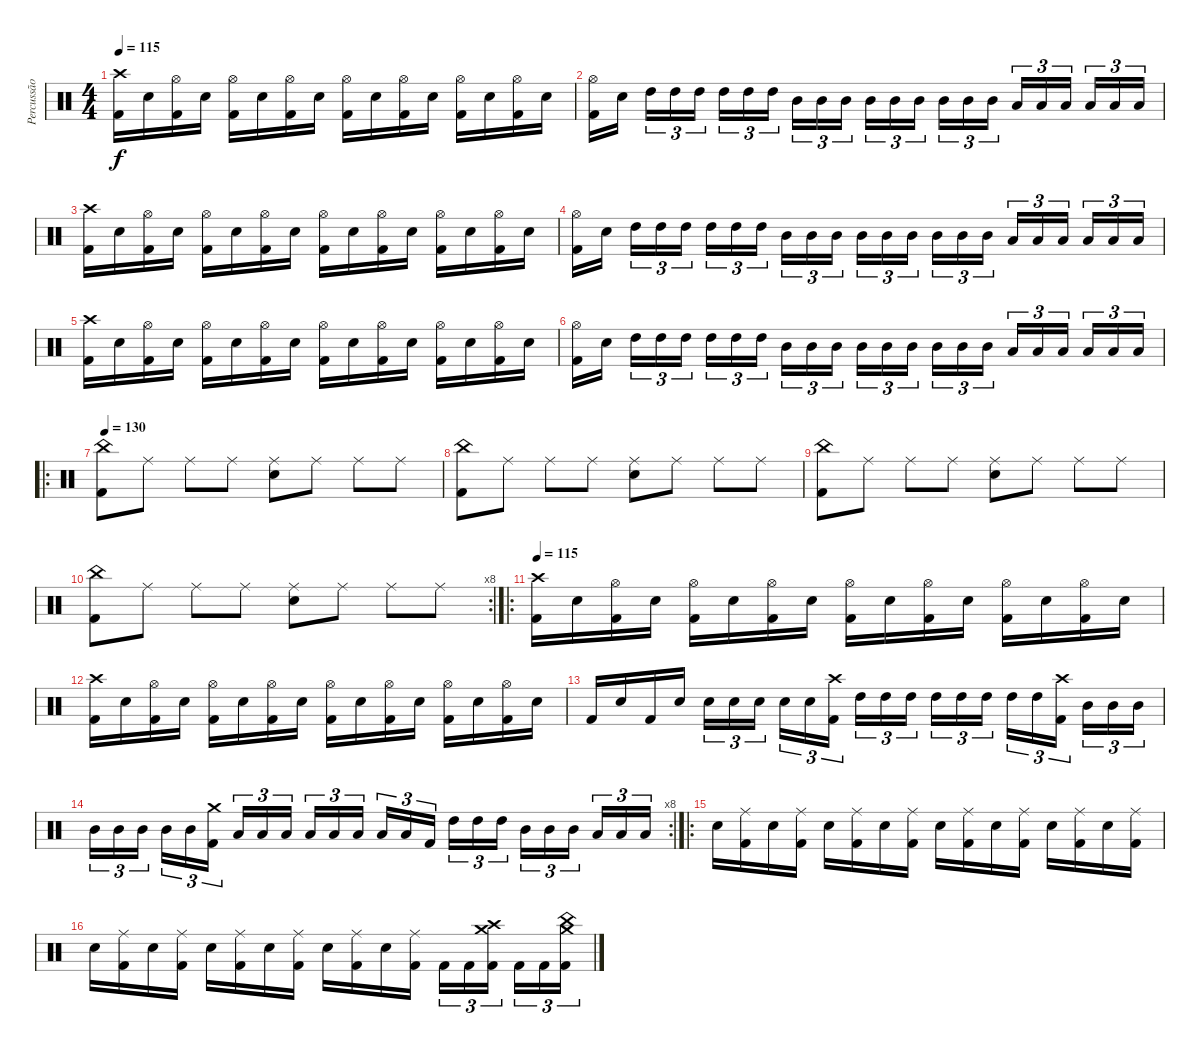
\track ("Percussão" "Percussão") {instrument percussion}
\staff {score}
\articulation defaults
\ts (4 4)
\tempo 115
\clef neutral
\ks c
("Crash high (hit)" "Kick (hit) 2").16{dy f} "Electric Snare (hit)".16 ("Hi-Hat (open)" "Kick (hit) 2").16 "Electric Snare (hit)".16 ("Hi-Hat (open)" "Kick (hit) 2").16 "Electric Snare (hit)".16 ("Hi-Hat (open)" "Kick (hit) 2").16 "Electric Snare (hit)".16 ("Hi-Hat (open)" "Kick (hit) 2").16 "Electric Snare (hit)".16 ("Hi-Hat (open)" "Kick (hit) 2").16 "Electric Snare (hit)".16 ("Hi-Hat (open)" "Kick (hit) 2").16 "Electric Snare (hit)".16 ("Hi-Hat (open)" "Kick (hit) 2").16 "Electric Snare (hit)".16 |
("Hi-Hat (open)" "Kick (hit) 2").16 "Electric Snare (hit)".16 "High Tom (hit)".16{tu (3 2)} "High Tom (hit)".16{tu (3 2)} "High Tom (hit)".16{tu (3 2)} "High Tom (hit)".16{tu (3 2)} "High Tom (hit)".16{tu (3 2)} "High Tom (hit)".16{tu (3 2)} "Mid Tom (hit)".16{tu (3 2)} "Mid Tom (hit)".16{tu (3 2)} "Mid Tom (hit)".16{tu (3 2)} "Mid Tom (hit)".16{tu (3 2)} "Mid Tom (hit)".16{tu (3 2)} "Mid Tom (hit)".16{tu (3 2)} "Mid Tom (hit)".16{tu (3 2)} "Mid Tom (hit)".16{tu (3 2)} "Mid Tom (hit)".16{tu (3 2)} "Low Tom (hit)".16{tu (3 2)} "Low Tom (hit)".16{tu (3 2)} "Low Tom (hit)".16{tu (3 2)} "Low Tom (hit)".16{tu (3 2)} "Low Tom (hit)".16{tu (3 2)} "Low Tom (hit)".16{tu (3 2)} |
("Crash high (hit)" "Kick (hit) 2").16 "Electric Snare (hit)".16 ("Hi-Hat (open)" "Kick (hit) 2").16 "Electric Snare (hit)".16 ("Hi-Hat (open)" "Kick (hit) 2").16 "Electric Snare (hit)".16 ("Hi-Hat (open)" "Kick (hit) 2").16 "Electric Snare (hit)".16 ("Hi-Hat (open)" "Kick (hit) 2").16 "Electric Snare (hit)".16 ("Hi-Hat (open)" "Kick (hit) 2").16 "Electric Snare (hit)".16 ("Hi-Hat (open)" "Kick (hit) 2").16 "Electric Snare (hit)".16 ("Hi-Hat (open)" "Kick (hit) 2").16 "Electric Snare (hit)".16 |
("Hi-Hat (open)" "Kick (hit) 2").16 "Electric Snare (hit)".16 "High Tom (hit)".16{tu (3 2)} "High Tom (hit)".16{tu (3 2)} "High Tom (hit)".16{tu (3 2)} "High Tom (hit)".16{tu (3 2)} "High Tom (hit)".16{tu (3 2)} "High Tom (hit)".16{tu (3 2)} "Mid Tom (hit)".16{tu (3 2)} "Mid Tom (hit)".16{tu (3 2)} "Mid Tom (hit)".16{tu (3 2)} "Mid Tom (hit)".16{tu (3 2)} "Mid Tom (hit)".16{tu (3 2)} "Mid Tom (hit)".16{tu (3 2)} "Mid Tom (hit)".16{tu (3 2)} "Mid Tom (hit)".16{tu (3 2)} "Mid Tom (hit)".16{tu (3 2)} "Low Tom (hit)".16{tu (3 2)} "Low Tom (hit)".16{tu (3 2)} "Low Tom (hit)".16{tu (3 2)} "Low Tom (hit)".16{tu (3 2)} "Low Tom (hit)".16{tu (3 2)} "Low Tom (hit)".16{tu (3 2)} |
("Crash high (hit)" "Kick (hit) 2").16 "Electric Snare (hit)".16 ("Hi-Hat (open)" "Kick (hit) 2").16 "Electric Snare (hit)".16 ("Hi-Hat (open)" "Kick (hit) 2").16 "Electric Snare (hit)".16 ("Hi-Hat (open)" "Kick (hit) 2").16 "Electric Snare (hit)".16 ("Hi-Hat (open)" "Kick (hit) 2").16 "Electric Snare (hit)".16 ("Hi-Hat (open)" "Kick (hit) 2").16 "Electric Snare (hit)".16 ("Hi-Hat (open)" "Kick (hit) 2").16 "Electric Snare (hit)".16 ("Hi-Hat (open)" "Kick (hit) 2").16 "Electric Snare (hit)".16 |
("Hi-Hat (open)" "Kick (hit) 2").16 "Electric Snare (hit)".16 "High Tom (hit)".16{tu (3 2)} "High Tom (hit)".16{tu (3 2)} "High Tom (hit)".16{tu (3 2)} "High Tom (hit)".16{tu (3 2)} "High Tom (hit)".16{tu (3 2)} "High Tom (hit)".16{tu (3 2)} "Mid Tom (hit)".16{tu (3 2)} "Mid Tom (hit)".16{tu (3 2)} "Mid Tom (hit)".16{tu (3 2)} "Mid Tom (hit)".16{tu (3 2)} "Mid Tom (hit)".16{tu (3 2)} "Mid Tom (hit)".16{tu (3 2)} "Mid Tom (hit)".16{tu (3 2)} "Mid Tom (hit)".16{tu (3 2)} "Mid Tom (hit)".16{tu (3 2)} "Low Tom (hit)".16{tu (3 2)} "Low Tom (hit)".16{tu (3 2)} "Low Tom (hit)".16{tu (3 2)} "Low Tom (hit)".16{tu (3 2)} "Low Tom (hit)".16{tu (3 2)} "Low Tom (hit)".16{tu (3 2)} |
\ro
\tempo 130
("Kick (hit) 2" "China (hit)").8 "Ride (middle)".8 "Ride (middle)".8 "Ride (middle)".8 ("Electric Snare (hit)" "Ride (middle)").8 "Ride (middle)".8 "Ride (middle)".8 "Ride (middle)".8 |
("Kick (hit) 2" "China (hit)").8 "Ride (middle)".8 "Ride (middle)".8 "Ride (middle)".8 ("Electric Snare (hit)" "Ride (middle)").8 "Ride (middle)".8 "Ride (middle)".8 "Ride (middle)".8 |
("Kick (hit) 2" "China (hit)").8 "Ride (middle)".8 "Ride (middle)".8 "Ride (middle)".8 ("Electric Snare (hit)" "Ride (middle)").8 "Ride (middle)".8 "Ride (middle)".8 "Ride (middle)".8 |
\rc 8
("Kick (hit) 2" "China (hit)").8 "Ride (middle)".8 "Ride (middle)".8 "Ride (middle)".8 ("Electric Snare (hit)" "Ride (middle)").8 "Ride (middle)".8 "Ride (middle)".8 "Ride (middle)".8 |
\ro
\tempo 115
("Crash high (hit)" "Kick (hit) 2").16 "Electric Snare (hit)".16 ("Hi-Hat (open)" "Kick (hit) 2").16 "Electric Snare (hit)".16 ("Hi-Hat (open)" "Kick (hit) 2").16 "Electric Snare (hit)".16 ("Hi-Hat (open)" "Kick (hit) 2").16 "Electric Snare (hit)".16 ("Hi-Hat (open)" "Kick (hit) 2").16 "Electric Snare (hit)".16 ("Hi-Hat (open)" "Kick (hit) 2").16 "Electric Snare (hit)".16 ("Hi-Hat (open)" "Kick (hit) 2").16 "Electric Snare (hit)".16 ("Hi-Hat (open)" "Kick (hit) 2").16 "Electric Snare (hit)".16 |
("Crash high (hit)" "Kick (hit) 2").16 "Electric Snare (hit)".16 ("Hi-Hat (open)" "Kick (hit) 2").16 "Electric Snare (hit)".16 ("Hi-Hat (open)" "Kick (hit) 2").16 "Electric Snare (hit)".16 ("Hi-Hat (open)" "Kick (hit) 2").16 "Electric Snare (hit)".16 ("Hi-Hat (open)" "Kick (hit) 2").16 "Electric Snare (hit)".16 ("Hi-Hat (open)" "Kick (hit) 2").16 "Electric Snare (hit)".16 ("Hi-Hat (open)" "Kick (hit) 2").16 "Electric Snare (hit)".16 ("Hi-Hat (open)" "Kick (hit) 2").16 "Electric Snare (hit)".16 |
"Kick (hit) 2".16 "Electric Snare (hit)".16 "Kick (hit) 2".16 "Electric Snare (hit)".16 "Electric Snare (hit)".16{tu (3 2)} "Electric Snare (hit)".16{tu (3 2)} "Electric Snare (hit)".16{tu (3 2)} "Electric Snare (hit)".16{tu (3 2)} "Electric Snare (hit)".16{tu (3 2)} ("Crash high (hit)" "Kick (hit) 2").16{tu (3 2)} "High Tom (hit)".16{tu (3 2)} "High Tom (hit)".16{tu (3 2)} "High Tom (hit)".16{tu (3 2)} "High Tom (hit)".16{tu (3 2)} "High Tom (hit)".16{tu (3 2)} "High Tom (hit)".16{tu (3 2)} "High Tom (hit)".16{tu (3 2)} "High Tom (hit)".16{tu (3 2)} ("Crash high (hit)" "Kick (hit) 2").16{tu (3 2)} "Mid Tom (hit)".16{tu (3 2)} "Mid Tom (hit)".16{tu (3 2)} "Mid Tom (hit)".16{tu (3 2)} |
\rc 8 "Mid Tom (hit)".16{tu (3 2)} "Mid Tom (hit)".16{tu (3 2)} "Mid Tom (hit)".16{tu (3 2)} "Mid Tom (hit)".16{tu (3 2)} "Mid Tom (hit)".16{tu (3 2)}
("Crash medium (hit)" "Kick (hit) 2").16{tu (3 2)} "Low Tom (hit)".16{tu (3 2)} "Low Tom (hit)".16{tu (3 2)} "Low Tom (hit)".16{tu (3 2)} "Low Tom (hit)".16{tu (3 2)} "Low Tom (hit)".16{tu (3 2)} "Low Tom (hit)".16{tu (3 2)} "Low Tom (hit)".16{tu (3 2)} "Low Tom (hit)".16{tu (3 2)} "Kick (hit) 2".16{tu (3 2)} "High Tom (hit)".16{tu (3 2)} "High Tom (hit)".16{tu (3 2)} "High Tom (hit)".16{tu (3 2)} "Mid Tom (hit)".16{tu (3 2)} "Mid Tom (hit)".16{tu (3 2)} "Mid Tom (hit)".16{tu (3 2)} "Low Tom (hit)".16{tu (3 2)} "Low Tom (hit)".16{tu (3 2)} "Low Tom (hit)".16{tu (3 2)} |
\ro "Electric Snare (hit)".16
("Ride (middle)" "Kick (hit) 2").16 "Electric Snare (hit)".16 ("Ride (middle)" "Kick (hit) 2").16 "Electric Snare (hit)".16 ("Ride (middle)" "Kick (hit) 2").16 "Electric Snare (hit)".16 ("Ride (middle)" "Kick (hit) 2").16 "Electric Snare (hit)".16 ("Ride (middle)" "Kick (hit) 2").16 "Electric Snare (hit)".16 ("Ride (middle)" "Kick (hit) 2").16 "Electric Snare (hit)".16 ("Ride (middle)" "Kick (hit) 2").16 "Electric Snare (hit)".16 ("Ride (middle)" "Kick (hit) 2").16 |
"Electric Snare (hit)".16 ("Ride (middle)" "Kick (hit) 2").16 "Electric Snare (hit)".16 ("Ride (middle)" "Kick (hit) 2").16 "Electric Snare (hit)".16 ("Ride (middle)" "Kick (hit) 2").16 "Electric Snare (hit)".16 ("Ride (middle)" "Kick (hit) 2").16 "Electric Snare (hit)".16 ("Ride (middle)" "Kick (hit) 2").16 "Electric Snare (hit)".16 ("Ride (middle)" "Kick (hit) 2").16 "Kick (hit) 2".16{tu (3 2)} "Kick (hit) 2".16{tu (3 2)} ("Crash high (hit)" "Crash medium (hit)" "Kick (hit) 2").16{tu (3 2)} "Kick (hit) 2".16{tu (3 2)} "Kick (hit) 2".16{tu (3 2)} ("China (hit)" "Crash medium (hit)" "Kick (hit) 2").16{tu (3 2)}
